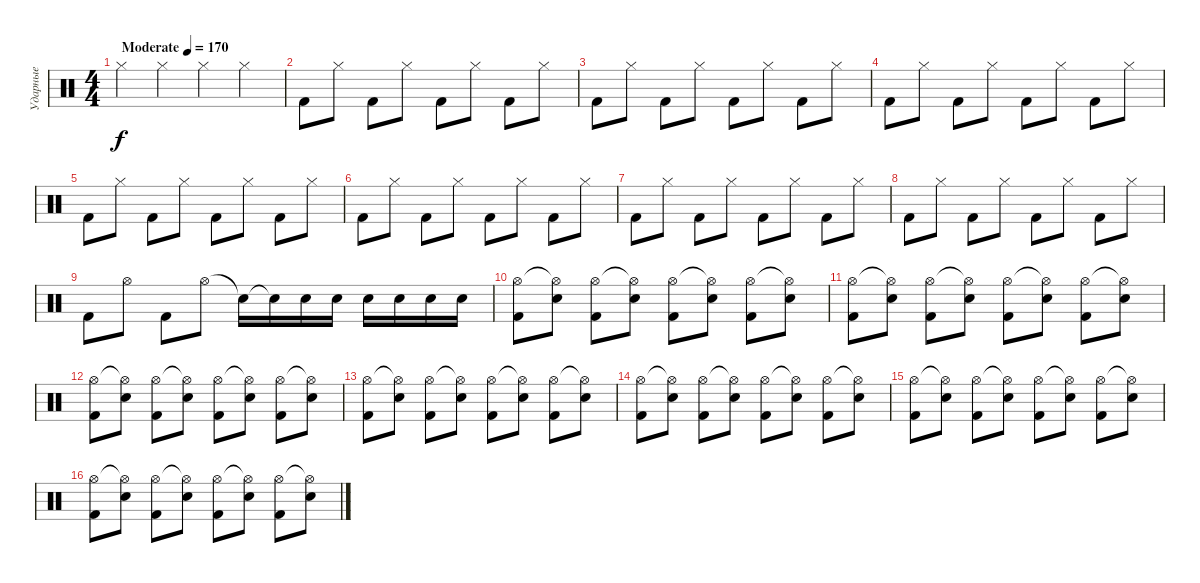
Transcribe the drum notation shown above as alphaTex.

\track ("Ударные" "Ударные") {instrument percussion}
\staff {score}
\articulation defaults
\ts (4 4)
\tempo (170 "Moderate")
\clef neutral
\ks c "Hi-Hat (closed)".4{dy f} "Hi-Hat (closed)".4 "Hi-Hat (closed)".4 "Hi-Hat (closed)".4
|
"Kick (hit) 2".8 "Hi-Hat (closed)".8 "Kick (hit) 2".8 "Hi-Hat (closed)".8 "Kick (hit) 2".8 "Hi-Hat (closed)".8 "Kick (hit) 2".8 "Hi-Hat (closed)".8 |
"Kick (hit) 2".8 "Hi-Hat (closed)".8 "Kick (hit) 2".8 "Hi-Hat (closed)".8 "Kick (hit) 2".8 "Hi-Hat (closed)".8 "Kick (hit) 2".8 "Hi-Hat (closed)".8 |
"Kick (hit) 2".8 "Hi-Hat (closed)".8 "Kick (hit) 2".8 "Hi-Hat (closed)".8 "Kick (hit) 2".8 "Hi-Hat (closed)".8 "Kick (hit) 2".8 "Hi-Hat (closed)".8 |
"Kick (hit) 2".8 "Hi-Hat (closed)".8 "Kick (hit) 2".8 "Hi-Hat (closed)".8 "Kick (hit) 2".8 "Hi-Hat (closed)".8 "Kick (hit) 2".8 "Hi-Hat (closed)".8 |
"Kick (hit) 2".8 "Hi-Hat (closed)".8 "Kick (hit) 2".8 "Hi-Hat (closed)".8 "Kick (hit) 2".8 "Hi-Hat (closed)".8 "Kick (hit) 2".8 "Hi-Hat (closed)".8 |
"Kick (hit) 2".8 "Hi-Hat (closed)".8 "Kick (hit) 2".8 "Hi-Hat (closed)".8 "Kick (hit) 2".8 "Hi-Hat (closed)".8 "Kick (hit) 2".8 "Hi-Hat (closed)".8 |
"Kick (hit) 2".8 "Hi-Hat (closed)".8 "Kick (hit) 2".8 "Hi-Hat (closed)".8 "Kick (hit) 2".8 "Hi-Hat (closed)".8 "Kick (hit) 2".8 "Hi-Hat (closed)".8 |
"Kick (hit) 2".8 "Hi-Hat (open)".8 "Kick (hit) 2".8 "Hi-Hat (open)".8 "Electric Snare (hit)"{t}.16 "Electric Snare (hit)"{t}.16 "Electric Snare (hit)".16 "Electric Snare (hit)".16 "Electric Snare (hit)".16 "Electric Snare (hit)".16 "Electric Snare (hit)".16 "Electric Snare (hit)".16 |
("Hi-Hat (open)" "Kick (hit) 2").8 ("Hi-Hat (open)"{t} "Electric Snare (hit)").8 ("Hi-Hat (open)" "Kick (hit) 2").8 ("Hi-Hat (open)"{t} "Electric Snare (hit)").8 ("Hi-Hat (open)" "Kick (hit) 2").8 ("Hi-Hat (open)"{t} "Electric Snare (hit)").8 ("Hi-Hat (open)" "Kick (hit) 2").8 ("Hi-Hat (open)"{t} "Electric Snare (hit)").8 |
("Hi-Hat (open)" "Kick (hit) 2").8 ("Hi-Hat (open)"{t} "Electric Snare (hit)").8 ("Hi-Hat (open)" "Kick (hit) 2").8 ("Hi-Hat (open)"{t} "Electric Snare (hit)").8 ("Hi-Hat (open)" "Kick (hit) 2").8 ("Hi-Hat (open)"{t} "Electric Snare (hit)").8 ("Hi-Hat (open)" "Kick (hit) 2").8 ("Hi-Hat (open)"{t} "Electric Snare (hit)").8 |
("Hi-Hat (open)" "Kick (hit) 2").8 ("Hi-Hat (open)"{t} "Electric Snare (hit)").8 ("Hi-Hat (open)" "Kick (hit) 2").8 ("Hi-Hat (open)"{t} "Electric Snare (hit)").8 ("Hi-Hat (open)" "Kick (hit) 2").8 ("Hi-Hat (open)"{t} "Electric Snare (hit)").8 ("Hi-Hat (open)" "Kick (hit) 2").8 ("Hi-Hat (open)"{t} "Electric Snare (hit)").8 |
("Hi-Hat (open)" "Kick (hit) 2").8 ("Hi-Hat (open)"{t} "Electric Snare (hit)").8 ("Hi-Hat (open)" "Kick (hit) 2").8 ("Hi-Hat (open)"{t} "Electric Snare (hit)").8 ("Hi-Hat (open)" "Kick (hit) 2").8 ("Hi-Hat (open)"{t} "Electric Snare (hit)").8 ("Hi-Hat (open)" "Kick (hit) 2").8 ("Hi-Hat (open)"{t} "Electric Snare (hit)").8 |
("Hi-Hat (open)" "Kick (hit) 2").8 ("Hi-Hat (open)"{t} "Electric Snare (hit)").8 ("Hi-Hat (open)" "Kick (hit) 2").8 ("Hi-Hat (open)"{t} "Electric Snare (hit)").8 ("Hi-Hat (open)" "Kick (hit) 2").8 ("Hi-Hat (open)"{t} "Electric Snare (hit)").8 ("Hi-Hat (open)" "Kick (hit) 2").8 ("Hi-Hat (open)"{t} "Electric Snare (hit)").8 |
("Hi-Hat (open)" "Kick (hit) 2").8 ("Hi-Hat (open)"{t} "Electric Snare (hit)").8 ("Hi-Hat (open)" "Kick (hit) 2").8 ("Hi-Hat (open)"{t} "Electric Snare (hit)").8 ("Hi-Hat (open)" "Kick (hit) 2").8 ("Hi-Hat (open)"{t} "Electric Snare (hit)").8 ("Hi-Hat (open)" "Kick (hit) 2").8 ("Hi-Hat (open)"{t} "Electric Snare (hit)").8 |
("Hi-Hat (open)" "Kick (hit) 2").8 ("Hi-Hat (open)"{t} "Electric Snare (hit)").8 ("Hi-Hat (open)" "Kick (hit) 2").8 ("Hi-Hat (open)"{t} "Electric Snare (hit)").8 ("Hi-Hat (open)" "Kick (hit) 2").8 ("Hi-Hat (open)"{t} "Electric Snare (hit)").8 ("Hi-Hat (open)" "Kick (hit) 2").8 ("Hi-Hat (open)"{t} "Electric Snare (hit)").8
